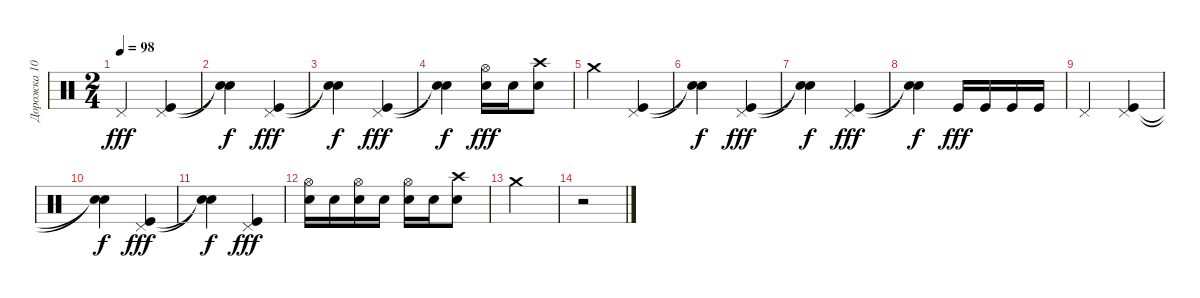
\track ("Дорожка 10" "Дорожка 10") {instrument percussion}
\staff {score}
\articulation defaults
\ts (2 4)
\tempo 98
\clef neutral
\ks c "Pedal Hi-Hat (hit)".4{dy fff}
("Kick (hit)" "Pedal Hi-Hat (hit)").4 |
("Snare (hit)"{t} "Snare (hit)"{t}).4{dy f} ("Kick (hit)" "Pedal Hi-Hat (hit)").4{dy fff} |
("Snare (hit)"{t} "Snare (hit)"{t}).4{dy f} ("Kick (hit)" "Pedal Hi-Hat (hit)").4{dy fff} |
("Snare (hit)"{t} "Snare (hit)"{t}).4{dy f} ("Snare (hit) 2" "Hi-Hat (open)").16{dy fff} "Snare (hit) 2".16 ("Snare (hit) 2" "Crash high (hit)").8 |
"Crash medium (hit)".4 ("Kick (hit)" "Pedal Hi-Hat (hit)").4 |
("Snare (hit)"{t} "Snare (hit)"{t}).4{dy f} ("Kick (hit)" "Pedal Hi-Hat (hit)").4{dy fff} |
("Snare (hit)"{t} "Snare (hit)"{t}).4{dy f} ("Kick (hit)" "Pedal Hi-Hat (hit)").4{dy fff} |
("Snare (hit)"{t} "Snare (hit)"{t}).4{dy f} "Kick (hit)".16{dy fff} "Kick (hit)".16 "Kick (hit)".16 "Kick (hit)".16 |
"Pedal Hi-Hat (hit)".4 ("Kick (hit)" "Pedal Hi-Hat (hit)").4 |
("Snare (hit)"{t} "Snare (hit)"{t}).4{dy f} ("Kick (hit)" "Pedal Hi-Hat (hit)").4{dy fff} |
("Snare (hit)"{t} "Snare (hit)"{t}).4{dy f} ("Kick (hit)" "Pedal Hi-Hat (hit)").4{dy fff} |
("Electric Snare (hit)" "Hi-Hat (open)").16 "Electric Snare (hit)".16 ("Electric Snare (hit)" "Hi-Hat (open)").16 "Snare (hit) 2".16 ("Snare (hit) 2" "Hi-Hat (open)").16 "Snare (hit) 2".16 ("Snare (hit) 2" "Crash high (hit)").8 |
"Crash medium (hit)".2 |
r.2
